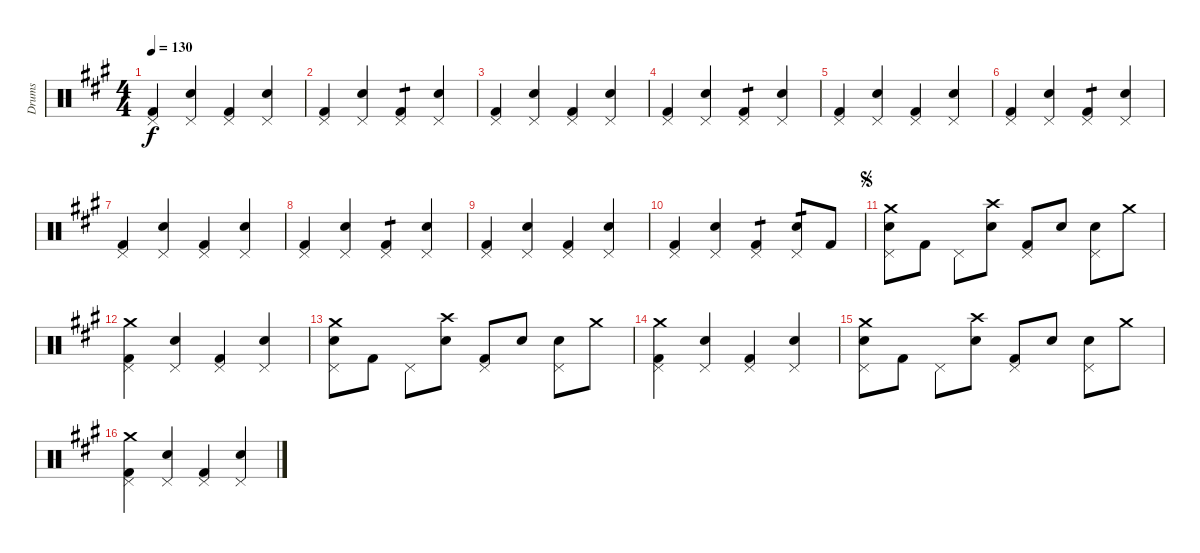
\track ("Drums" "Drums") {instrument percussion}
\staff {score}
\articulation defaults
\ts (4 4)
\tempo 130
\clef neutral
\ks a
("Kick (hit) 2" "Pedal Hi-Hat (hit)").4{dy f} ("Snare (hit) 2" "Pedal Hi-Hat (hit)").4 ("Kick (hit) 2" "Pedal Hi-Hat (hit)").4 ("Snare (hit) 2" "Pedal Hi-Hat (hit)").4 |
("Kick (hit) 2" "Pedal Hi-Hat (hit)").4 ("Snare (hit) 2" "Pedal Hi-Hat (hit)").4 ("Kick (hit) 2" "Pedal Hi-Hat (hit)").4{tp 1} ("Snare (hit) 2" "Pedal Hi-Hat (hit)").4 |
("Kick (hit) 2" "Pedal Hi-Hat (hit)").4 ("Snare (hit) 2" "Pedal Hi-Hat (hit)").4 ("Kick (hit) 2" "Pedal Hi-Hat (hit)").4 ("Snare (hit) 2" "Pedal Hi-Hat (hit)").4 |
("Kick (hit) 2" "Pedal Hi-Hat (hit)").4 ("Snare (hit) 2" "Pedal Hi-Hat (hit)").4 ("Kick (hit) 2" "Pedal Hi-Hat (hit)").4{tp 1} ("Snare (hit) 2" "Pedal Hi-Hat (hit)").4 |
("Kick (hit) 2" "Pedal Hi-Hat (hit)").4 ("Snare (hit) 2" "Pedal Hi-Hat (hit)").4 ("Kick (hit) 2" "Pedal Hi-Hat (hit)").4 ("Snare (hit) 2" "Pedal Hi-Hat (hit)").4 |
("Kick (hit) 2" "Pedal Hi-Hat (hit)").4 ("Snare (hit) 2" "Pedal Hi-Hat (hit)").4 ("Kick (hit) 2" "Pedal Hi-Hat (hit)").4{tp 1} ("Snare (hit) 2" "Pedal Hi-Hat (hit)").4 |
("Kick (hit) 2" "Pedal Hi-Hat (hit)").4 ("Snare (hit) 2" "Pedal Hi-Hat (hit)").4 ("Kick (hit) 2" "Pedal Hi-Hat (hit)").4 ("Snare (hit) 2" "Pedal Hi-Hat (hit)").4 |
("Kick (hit) 2" "Pedal Hi-Hat (hit)").4 ("Snare (hit) 2" "Pedal Hi-Hat (hit)").4 ("Kick (hit) 2" "Pedal Hi-Hat (hit)").4{tp 1} ("Snare (hit) 2" "Pedal Hi-Hat (hit)").4 |
("Kick (hit) 2" "Pedal Hi-Hat (hit)").4 ("Snare (hit) 2" "Pedal Hi-Hat (hit)").4 ("Kick (hit) 2" "Pedal Hi-Hat (hit)").4 ("Snare (hit) 2" "Pedal Hi-Hat (hit)").4 |
("Kick (hit) 2" "Pedal Hi-Hat (hit)").4 ("Snare (hit) 2" "Pedal Hi-Hat (hit)").4 ("Kick (hit) 2" "Pedal Hi-Hat (hit)").4{tp 1} ("Snare (hit) 2" "Pedal Hi-Hat (hit)").8{tp 1} "Kick (hit) 2".8 |
\jump segno
("Snare (hit) 2" "Pedal Hi-Hat (hit)" "Crash medium (hit)").8 "Kick (hit) 2".8 "Pedal Hi-Hat (hit)".8 ("Snare (hit) 2" "Crash high (hit)").8 ("Kick (hit) 2" "Pedal Hi-Hat (hit)").8 "Snare (hit) 2".8 ("Snare (hit) 2" "Pedal Hi-Hat (hit)").8 "Crash medium (hit)".8 |
("Kick (hit) 2" "Pedal Hi-Hat (hit)" "Crash medium (hit)").4 ("Snare (hit) 2" "Pedal Hi-Hat (hit)").4 ("Kick (hit) 2" "Pedal Hi-Hat (hit)").4 ("Snare (hit) 2" "Pedal Hi-Hat (hit)").4 |
("Snare (hit) 2" "Pedal Hi-Hat (hit)" "Crash medium (hit)").8 "Kick (hit) 2".8 "Pedal Hi-Hat (hit)".8 ("Snare (hit) 2" "Crash high (hit)").8 ("Kick (hit) 2" "Pedal Hi-Hat (hit)").8 "Snare (hit) 2".8 ("Snare (hit) 2" "Pedal Hi-Hat (hit)").8 "Crash medium (hit)".8 |
("Kick (hit) 2" "Pedal Hi-Hat (hit)" "Crash medium (hit)").4 ("Snare (hit) 2" "Pedal Hi-Hat (hit)").4 ("Kick (hit) 2" "Pedal Hi-Hat (hit)").4 ("Snare (hit) 2" "Pedal Hi-Hat (hit)").4 |
("Snare (hit) 2" "Pedal Hi-Hat (hit)" "Crash medium (hit)").8 "Kick (hit) 2".8 "Pedal Hi-Hat (hit)".8 ("Snare (hit) 2" "Crash high (hit)").8 ("Kick (hit) 2" "Pedal Hi-Hat (hit)").8 "Snare (hit) 2".8 ("Snare (hit) 2" "Pedal Hi-Hat (hit)").8 "Crash medium (hit)".8 |
("Kick (hit) 2" "Pedal Hi-Hat (hit)" "Crash medium (hit)").4 ("Snare (hit) 2" "Pedal Hi-Hat (hit)").4 ("Kick (hit) 2" "Pedal Hi-Hat (hit)").4 ("Snare (hit) 2" "Pedal Hi-Hat (hit)").4
